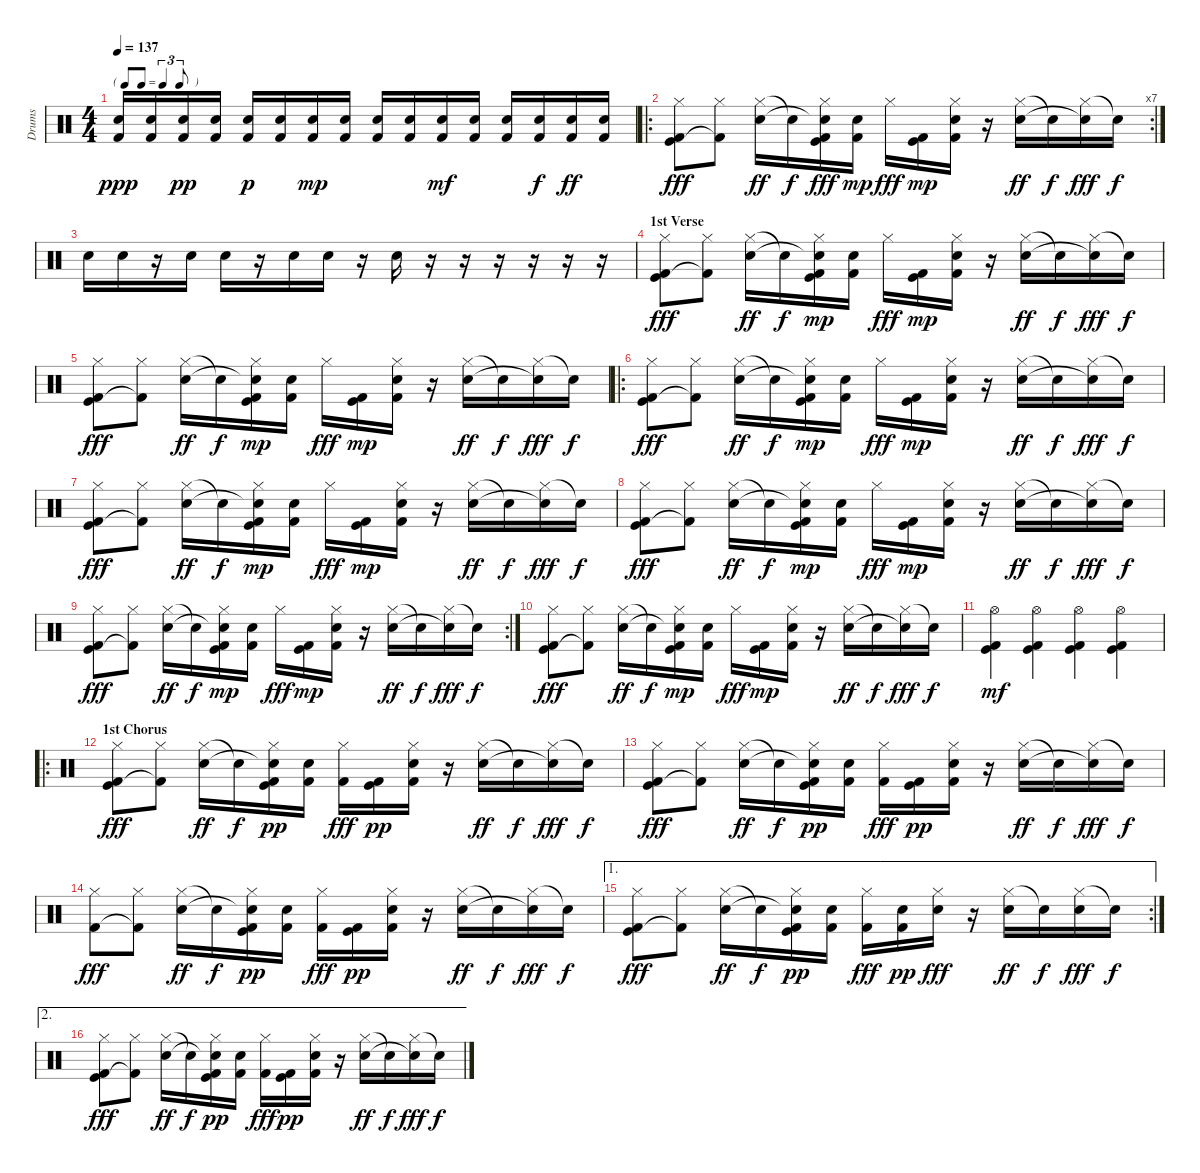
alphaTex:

\track ("Drums" "Drums") {instrument percussion}
\staff {score}
\articulation defaults
\ts (4 4)
\tf triplet8th
\tempo 137
\clef neutral
\ks c
("Electric Snare (hit)" "Kick (hit) 2").16{dy ppp} ("Electric Snare (hit)" "Kick (hit) 2").16 ("Electric Snare (hit)" "Kick (hit) 2").16{dy pp} ("Electric Snare (hit)" "Kick (hit) 2").16 ("Electric Snare (hit)" "Kick (hit) 2").16{dy p} ("Electric Snare (hit)" "Kick (hit) 2").16 ("Electric Snare (hit)" "Kick (hit) 2").16{dy mp} ("Electric Snare (hit)" "Kick (hit) 2").16 ("Electric Snare (hit)" "Kick (hit) 2").16 ("Electric Snare (hit)" "Kick (hit) 2").16 ("Electric Snare (hit)" "Kick (hit) 2").16{dy mf} ("Electric Snare (hit)" "Kick (hit) 2").16 ("Electric Snare (hit)" "Kick (hit) 2").16 ("Electric Snare (hit)" "Kick (hit) 2").16{dy f} ("Electric Snare (hit)" "Kick (hit) 2").16{dy ff} ("Electric Snare (hit)" "Kick (hit) 2").16 |
\ro
\rc 7
("Hi-Hat (closed)" "Kick (hit)" "Kick (hit) 2").8{dy fff} ("Hi-Hat (closed)" "Kick (hit) 2"{t}).8 ("Hi-Hat (closed)" "Electric Snare (hit)").16{dy ff} "Snare (hit)"{t}.16{dy f} ("Hi-Hat (closed)" "Snare (hit)"{t} "Kick (hit)" "Kick (hit) 2").16{dy fff} ("Electric Snare (hit)" "Kick (hit) 2").16{dy mp} "Hi-Hat (closed)".16{dy fff} ("Kick (hit)" "Kick (hit) 2").16{dy mp} ("Hi-Hat (closed)" "Electric Snare (hit)" "Kick (hit) 2").16 r.16 ("Hi-Hat (closed)" "Electric Snare (hit)").16{dy ff} "Snare (hit)"{t}.16{dy f} ("Hi-Hat (closed)" "Snare (hit)"{t}).16{dy fff} "Snare (hit)"{t}.16{dy f} |
"Electric Snare (hit)".16 "Electric Snare (hit)".16 r.16 "Electric Snare (hit)".16 "Electric Snare (hit)".16 r.16 "Electric Snare (hit)".16 "Electric Snare (hit)".16 r.16 "Electric Snare (hit)".16 r.16 r.16 r.16 r.16 r.16 r.16 |
\section ("" "1st Verse")
("Hi-Hat (closed)" "Kick (hit)" "Kick (hit) 2").8{dy fff} ("Hi-Hat (closed)" "Kick (hit) 2"{t}).8 ("Hi-Hat (closed)" "Electric Snare (hit)").16{dy ff} "Snare (hit)"{t}.16{dy f} ("Hi-Hat (closed)" "Snare (hit)"{t} "Kick (hit)" "Kick (hit) 2").16{dy mp} ("Electric Snare (hit)" "Kick (hit) 2").16 "Hi-Hat (closed)".16{dy fff} ("Kick (hit)" "Kick (hit) 2").16{dy mp} ("Hi-Hat (closed)" "Electric Snare (hit)" "Kick (hit) 2").16 r.16 ("Hi-Hat (closed)" "Electric Snare (hit)").16{dy ff} "Snare (hit)"{t}.16{dy f} ("Hi-Hat (closed)" "Snare (hit)"{t}).16{dy fff} "Snare (hit)"{t}.16{dy f} |
("Hi-Hat (closed)" "Kick (hit)" "Kick (hit) 2").8{dy fff} ("Hi-Hat (closed)" "Kick (hit) 2"{t}).8 ("Hi-Hat (closed)" "Electric Snare (hit)").16{dy ff} "Snare (hit)"{t}.16{dy f} ("Hi-Hat (closed)" "Snare (hit)"{t} "Kick (hit)" "Kick (hit) 2").16{dy mp} ("Electric Snare (hit)" "Kick (hit) 2").16 "Hi-Hat (closed)".16{dy fff} ("Kick (hit)" "Kick (hit) 2").16{dy mp} ("Hi-Hat (closed)" "Electric Snare (hit)" "Kick (hit) 2").16 r.16 ("Hi-Hat (closed)" "Electric Snare (hit)").16{dy ff} "Snare (hit)"{t}.16{dy f} ("Hi-Hat (closed)" "Snare (hit)"{t}).16{dy fff} "Snare (hit)"{t}.16{dy f} |
\ro
("Hi-Hat (closed)" "Kick (hit)" "Kick (hit) 2").8{dy fff} ("Hi-Hat (closed)" "Kick (hit) 2"{t}).8 ("Hi-Hat (closed)" "Electric Snare (hit)").16{dy ff} "Snare (hit)"{t}.16{dy f} ("Hi-Hat (closed)" "Snare (hit)"{t} "Kick (hit)" "Kick (hit) 2").16{dy mp} ("Electric Snare (hit)" "Kick (hit) 2").16 "Hi-Hat (closed)".16{dy fff} ("Kick (hit)" "Kick (hit) 2").16{dy mp} ("Hi-Hat (closed)" "Electric Snare (hit)" "Kick (hit) 2").16 r.16 ("Hi-Hat (closed)" "Electric Snare (hit)").16{dy ff} "Snare (hit)"{t}.16{dy f} ("Hi-Hat (closed)" "Snare (hit)"{t}).16{dy fff} "Snare (hit)"{t}.16{dy f} |
("Hi-Hat (closed)" "Kick (hit)" "Kick (hit) 2").8{dy fff} ("Hi-Hat (closed)" "Kick (hit) 2"{t}).8 ("Hi-Hat (closed)" "Electric Snare (hit)").16{dy ff} "Snare (hit)"{t}.16{dy f} ("Hi-Hat (closed)" "Snare (hit)"{t} "Kick (hit)" "Kick (hit) 2").16{dy mp} ("Electric Snare (hit)" "Kick (hit) 2").16 "Hi-Hat (closed)".16{dy fff} ("Kick (hit)" "Kick (hit) 2").16{dy mp} ("Hi-Hat (closed)" "Electric Snare (hit)" "Kick (hit) 2").16 r.16 ("Hi-Hat (closed)" "Electric Snare (hit)").16{dy ff} "Snare (hit)"{t}.16{dy f} ("Hi-Hat (closed)" "Snare (hit)"{t}).16{dy fff} "Snare (hit)"{t}.16{dy f} |
("Hi-Hat (closed)" "Kick (hit)" "Kick (hit) 2").8{dy fff} ("Hi-Hat (closed)" "Kick (hit) 2"{t}).8 ("Hi-Hat (closed)" "Electric Snare (hit)").16{dy ff} "Snare (hit)"{t}.16{dy f} ("Hi-Hat (closed)" "Snare (hit)"{t} "Kick (hit)" "Kick (hit) 2").16{dy mp} ("Electric Snare (hit)" "Kick (hit) 2").16 "Hi-Hat (closed)".16{dy fff} ("Kick (hit)" "Kick (hit) 2").16{dy mp} ("Hi-Hat (closed)" "Electric Snare (hit)" "Kick (hit) 2").16 r.16 ("Hi-Hat (closed)" "Electric Snare (hit)").16{dy ff} "Snare (hit)"{t}.16{dy f} ("Hi-Hat (closed)" "Snare (hit)"{t}).16{dy fff} "Snare (hit)"{t}.16{dy f} |
\rc 2
("Hi-Hat (closed)" "Kick (hit)" "Kick (hit) 2").8{dy fff} ("Hi-Hat (closed)" "Kick (hit) 2"{t}).8 ("Hi-Hat (closed)" "Electric Snare (hit)").16{dy ff} "Snare (hit)"{t}.16{dy f} ("Hi-Hat (closed)" "Snare (hit)"{t} "Kick (hit)" "Kick (hit) 2").16{dy mp} ("Electric Snare (hit)" "Kick (hit) 2").16 "Hi-Hat (closed)".16{dy fff} ("Kick (hit)" "Kick (hit) 2").16{dy mp} ("Hi-Hat (closed)" "Electric Snare (hit)" "Kick (hit) 2").16 r.16 ("Hi-Hat (closed)" "Electric Snare (hit)").16{dy ff} "Snare (hit)"{t}.16{dy f} ("Hi-Hat (closed)" "Snare (hit)"{t}).16{dy fff} "Snare (hit)"{t}.16{dy f} |
("Hi-Hat (closed)" "Kick (hit)" "Kick (hit) 2").8{dy fff} ("Hi-Hat (closed)" "Kick (hit) 2"{t}).8 ("Hi-Hat (closed)" "Electric Snare (hit)").16{dy ff} "Snare (hit)"{t}.16{dy f} ("Hi-Hat (closed)" "Snare (hit)"{t} "Kick (hit)" "Kick (hit) 2").16{dy mp} ("Electric Snare (hit)" "Kick (hit) 2").16 "Hi-Hat (closed)".16{dy fff} ("Kick (hit)" "Kick (hit) 2").16{dy mp} ("Hi-Hat (closed)" "Electric Snare (hit)" "Kick (hit) 2").16 r.16 ("Hi-Hat (closed)" "Electric Snare (hit)").16{dy ff} "Snare (hit)"{t}.16{dy f} ("Hi-Hat (closed)" "Snare (hit)"{t}).16{dy fff} "Snare (hit)"{t}.16{dy f} |
("Hi-Hat (open)" "Kick (hit)" "Kick (hit) 2").4{dy mf} ("Hi-Hat (open)" "Kick (hit)" "Kick (hit) 2").4 ("Hi-Hat (open)" "Kick (hit)" "Kick (hit) 2").4 ("Hi-Hat (open)" "Kick (hit)" "Kick (hit) 2").4 |
\ro
\section ("" "1st Chorus")
("Hi-Hat (closed)" "Kick (hit)" "Kick (hit) 2").8{dy fff} ("Hi-Hat (closed)" "Kick (hit) 2"{t}).8 ("Hi-Hat (closed)" "Electric Snare (hit)").16{dy ff} "Snare (hit)"{t}.16{dy f} ("Hi-Hat (closed)" "Snare (hit)"{t} "Kick (hit)" "Kick (hit) 2").16{dy pp} ("Electric Snare (hit)" "Kick (hit) 2").16 ("Hi-Hat (closed)" "Kick (hit) 2").16{dy fff} ("Kick (hit)" "Kick (hit) 2").16{dy pp} ("Hi-Hat (closed)" "Electric Snare (hit)" "Kick (hit) 2").16 r.16 ("Hi-Hat (closed)" "Electric Snare (hit)").16{dy ff} "Snare (hit)"{t}.16{dy f} ("Hi-Hat (closed)" "Snare (hit)"{t}).16{dy fff} "Snare (hit)"{t}.16{dy f} |
("Hi-Hat (closed)" "Kick (hit)" "Kick (hit) 2").8{dy fff} ("Hi-Hat (closed)" "Kick (hit) 2"{t}).8 ("Hi-Hat (closed)" "Electric Snare (hit)").16{dy ff} "Snare (hit)"{t}.16{dy f} ("Hi-Hat (closed)" "Snare (hit)"{t} "Kick (hit)" "Kick (hit) 2").16{dy pp} ("Electric Snare (hit)" "Kick (hit) 2").16 ("Hi-Hat (closed)" "Kick (hit) 2").16{dy fff} ("Kick (hit)" "Kick (hit) 2").16{dy pp} ("Hi-Hat (closed)" "Electric Snare (hit)" "Kick (hit) 2").16 r.16 ("Hi-Hat (closed)" "Electric Snare (hit)").16{dy ff} "Snare (hit)"{t}.16{dy f} ("Hi-Hat (closed)" "Snare (hit)"{t}).16{dy fff} "Snare (hit)"{t}.16{dy f} |
("Hi-Hat (closed)" "Kick (hit) 2").8{dy fff} ("Hi-Hat (closed)" "Kick (hit) 2"{t}).8 ("Hi-Hat (closed)" "Electric Snare (hit)").16{dy ff} "Snare (hit)"{t}.16{dy f} ("Hi-Hat (closed)" "Snare (hit)"{t} "Kick (hit)" "Kick (hit) 2").16{dy pp} ("Electric Snare (hit)" "Kick (hit) 2").16 ("Hi-Hat (closed)" "Kick (hit) 2").16{dy fff} ("Kick (hit)" "Kick (hit) 2").16{dy pp} ("Hi-Hat (closed)" "Electric Snare (hit)" "Kick (hit) 2").16 r.16 ("Hi-Hat (closed)" "Electric Snare (hit)").16{dy ff} "Snare (hit)"{t}.16{dy f} ("Hi-Hat (closed)" "Snare (hit)"{t}).16{dy fff} "Snare (hit)"{t}.16{dy f} |
\ae 1
\rc 2
("Hi-Hat (closed)" "Kick (hit)" "Kick (hit) 2").8{dy fff} ("Hi-Hat (closed)" "Kick (hit) 2"{t}).8 ("Hi-Hat (closed)" "Electric Snare (hit)").16{dy ff} "Snare (hit)"{t}.16{dy f} ("Hi-Hat (closed)" "Snare (hit)"{t} "Kick (hit)" "Kick (hit) 2").16{dy pp} ("Electric Snare (hit)" "Kick (hit) 2").16 ("Hi-Hat (closed)" "Kick (hit) 2").16{dy fff} ("Electric Snare (hit)" "Kick (hit) 2").16{dy pp} ("Hi-Hat (closed)" "Electric Snare (hit)").16{dy fff} r.16 ("Hi-Hat (closed)" "Electric Snare (hit)").16{dy ff} "Snare (hit)"{t}.16{dy f} ("Hi-Hat (closed)" "Electric Snare (hit)").16{dy fff} "Snare (hit)"{t}.16{dy f} |
\ae 2
("Hi-Hat (closed)" "Kick (hit)" "Kick (hit) 2").8{dy fff} ("Hi-Hat (closed)" "Kick (hit) 2"{t}).8 ("Hi-Hat (closed)" "Electric Snare (hit)").16{dy ff} "Snare (hit)"{t}.16{dy f} ("Hi-Hat (closed)" "Snare (hit)"{t} "Kick (hit)" "Kick (hit) 2").16{dy pp} ("Electric Snare (hit)" "Kick (hit) 2").16 ("Hi-Hat (closed)" "Kick (hit) 2").16{dy fff} ("Kick (hit)" "Kick (hit) 2").16{dy pp} ("Hi-Hat (closed)" "Electric Snare (hit)" "Kick (hit) 2").16 r.16 ("Hi-Hat (closed)" "Electric Snare (hit)").16{dy ff} "Snare (hit)"{t}.16{dy f} ("Hi-Hat (closed)" "Snare (hit)"{t}).16{dy fff} "Snare (hit)"{t}.16{dy f}
